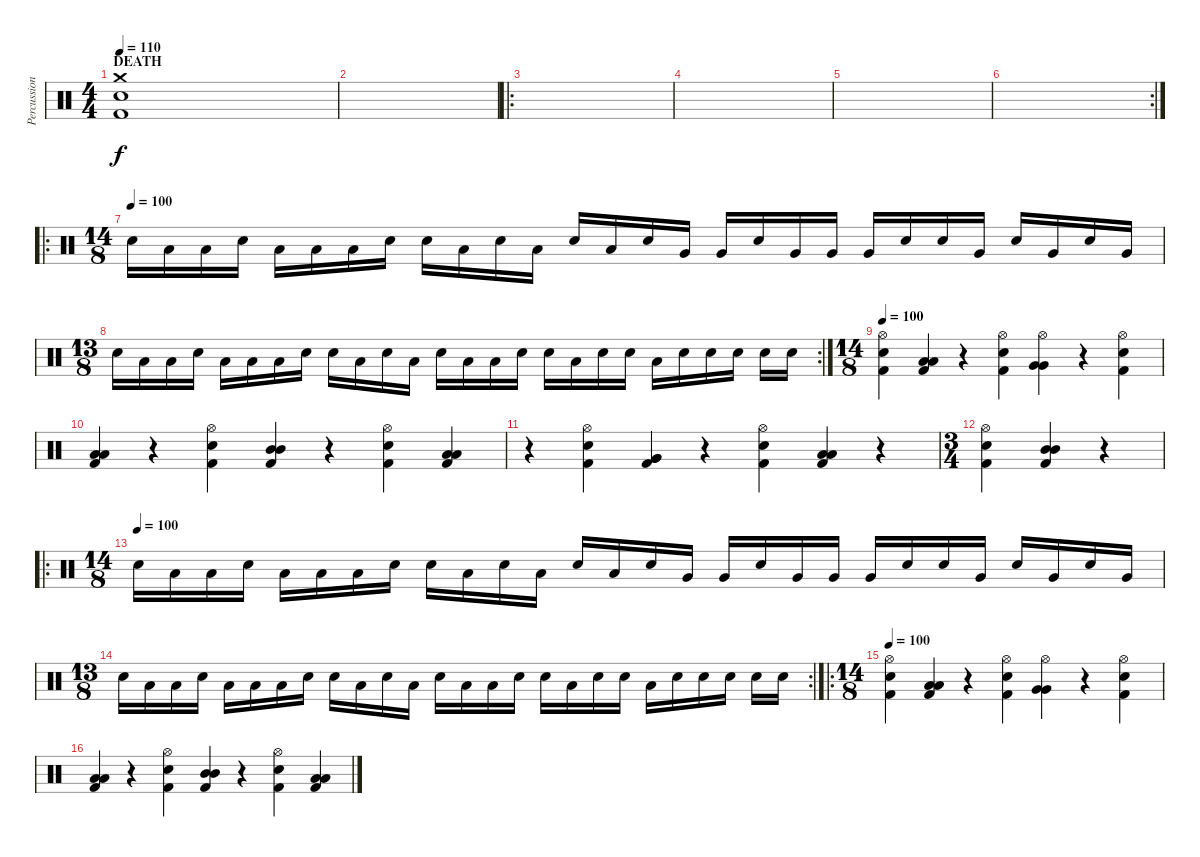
\track ("Percussion" "Percussion") {instrument percussion}
\staff {score}
\articulation defaults
\ts (4 4)
\section ("" "DEATH")
\tempo 110
\clef neutral
\ks c
("Crash medium (hit)" "Electric Snare (hit)" "Kick (hit) 2").1{dy f} |
|
\ro
|
|
|
\rc 2
|
\ro
\ts (14 8)
\tempo (100)
"Electric Snare (hit)".16 "Low Tom (hit)".16 "Low Tom (hit)".16 "Electric Snare (hit)".16 "Low Tom (hit)".16 "Low Tom (hit)".16 "Low Tom (hit)".16 "Electric Snare (hit)".16 "Electric Snare (hit)".16 "Low Tom (hit)".16 "Electric Snare (hit)".16 "Low Tom (hit)".16 "Electric Snare (hit)".16 "Low Tom (hit)".16 "Electric Snare (hit)".16 "Very Low Tom (hit)".16 "Very Low Tom (hit)".16 "Electric Snare (hit)".16 "Very Low Tom (hit)".16 "Very Low Tom (hit)".16 "Very Low Tom (hit)".16 "Electric Snare (hit)".16 "Electric Snare (hit)".16 "Very Low Tom (hit)".16 "Electric Snare (hit)".16 "Very Low Tom (hit)".16 "Electric Snare (hit)".16 "Very Low Tom (hit)".16 |
\rc 2
\ts (13 8)
"Electric Snare (hit)".16 "Low Tom (hit)".16 "Low Tom (hit)".16 "Electric Snare (hit)".16 "Low Tom (hit)".16 "Low Tom (hit)".16 "Low Tom (hit)".16 "Electric Snare (hit)".16 "Electric Snare (hit)".16 "Low Tom (hit)".16 "Electric Snare (hit)".16 "Low Tom (hit)".16 "Electric Snare (hit)".16 "Low Tom (hit)".16 "Low Tom (hit)".16 "Electric Snare (hit)".16 "Electric Snare (hit)".16 "Low Tom (hit)".16 "Electric Snare (hit)".16 "Electric Snare (hit)".16 "Low Tom (hit)".16 "Electric Snare (hit)".16 "Electric Snare (hit)".16 "Electric Snare (hit)".16 "Electric Snare (hit)".16 "Electric Snare (hit)".16 |
\ts (14 8)
\tempo 100
("Hi-Hat (open)" "Electric Snare (hit)" "Kick (hit) 2").4 ("Low Tom (hit)" "Low Tom (hit)" "Kick (hit) 2").4 r.4 ("Hi-Hat (open)" "Electric Snare (hit)" "Kick (hit) 2").4 ("Very Low Tom (hit)" "Very Low Tom (hit)" "Hi-Hat (open)").4 r.4 ("Hi-Hat (open)" "Electric Snare (hit)" "Kick (hit) 2").4 |
("Low Tom (hit)" "Low Tom (hit)" "Kick (hit) 2").4 r.4 ("Hi-Hat (open)" "Electric Snare (hit)" "Kick (hit) 2").4 ("Mid Tom (hit)" "Mid Tom (hit)" "Kick (hit) 2").4 r.4 ("Hi-Hat (open)" "Electric Snare (hit)" "Kick (hit) 2").4 ("Low Tom (hit)" "Low Tom (hit)" "Kick (hit) 2").4 |
r.4 ("Hi-Hat (open)" "Electric Snare (hit)" "Kick (hit) 2").4 ("Very Low Tom (hit)" "Very Low Tom (hit)" "Kick (hit) 2").4 r.4 ("Hi-Hat (open)" "Electric Snare (hit)" "Kick (hit) 2").4 ("Low Tom (hit)" "Low Tom (hit)" "Kick (hit) 2").4 r.4 |
\ts (3 4)
("Hi-Hat (open)" "Electric Snare (hit)" "Kick (hit) 2").4 ("Mid Tom (hit)" "Mid Tom (hit)" "Kick (hit) 2").4 r.4 |
\ro
\ts (14 8)
\tempo (100)
"Electric Snare (hit)".16 "Low Tom (hit)".16 "Low Tom (hit)".16 "Electric Snare (hit)".16 "Low Tom (hit)".16 "Low Tom (hit)".16 "Low Tom (hit)".16 "Electric Snare (hit)".16 "Electric Snare (hit)".16 "Low Tom (hit)".16 "Electric Snare (hit)".16 "Low Tom (hit)".16 "Electric Snare (hit)".16 "Low Tom (hit)".16 "Electric Snare (hit)".16 "Very Low Tom (hit)".16 "Very Low Tom (hit)".16 "Electric Snare (hit)".16 "Very Low Tom (hit)".16 "Very Low Tom (hit)".16 "Very Low Tom (hit)".16 "Electric Snare (hit)".16 "Electric Snare (hit)".16 "Very Low Tom (hit)".16 "Electric Snare (hit)".16 "Very Low Tom (hit)".16 "Electric Snare (hit)".16 "Very Low Tom (hit)".16 |
\rc 2
\ts (13 8)
"Electric Snare (hit)".16 "Low Tom (hit)".16 "Low Tom (hit)".16 "Electric Snare (hit)".16 "Low Tom (hit)".16 "Low Tom (hit)".16 "Low Tom (hit)".16 "Electric Snare (hit)".16 "Electric Snare (hit)".16 "Low Tom (hit)".16 "Electric Snare (hit)".16 "Low Tom (hit)".16 "Electric Snare (hit)".16 "Low Tom (hit)".16 "Low Tom (hit)".16 "Electric Snare (hit)".16 "Electric Snare (hit)".16 "Low Tom (hit)".16 "Electric Snare (hit)".16 "Electric Snare (hit)".16 "Low Tom (hit)".16 "Electric Snare (hit)".16 "Electric Snare (hit)".16 "Electric Snare (hit)".16 "Electric Snare (hit)".16 "Electric Snare (hit)".16 |
\ro
\ts (14 8)
\tempo 100
("Hi-Hat (open)" "Electric Snare (hit)" "Kick (hit) 2").4 ("Low Tom (hit)" "Low Tom (hit)" "Kick (hit) 2").4 r.4 ("Hi-Hat (open)" "Electric Snare (hit)" "Kick (hit) 2").4 ("Very Low Tom (hit)" "Very Low Tom (hit)" "Hi-Hat (open)").4 r.4 ("Hi-Hat (open)" "Electric Snare (hit)" "Kick (hit) 2").4 |
("Low Tom (hit)" "Low Tom (hit)" "Kick (hit) 2").4 r.4 ("Hi-Hat (open)" "Electric Snare (hit)" "Kick (hit) 2").4 ("Mid Tom (hit)" "Mid Tom (hit)" "Kick (hit) 2").4 r.4 ("Hi-Hat (open)" "Electric Snare (hit)" "Kick (hit) 2").4 ("Low Tom (hit)" "Low Tom (hit)" "Kick (hit) 2").4
